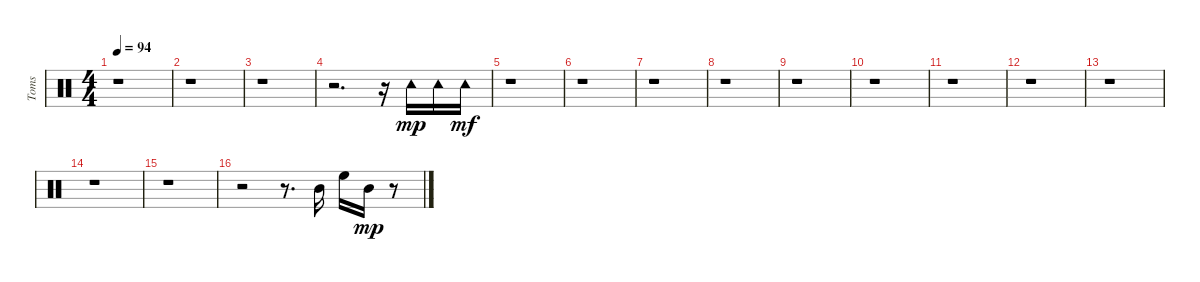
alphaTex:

\track ("Toms" "Toms") {instrument percussion}
\staff {score}
\articulation defaults
\ts (4 4)
\tempo 94
\clef neutral
\ks c
r.1{dy mp} |
r.1 |
r.1 |
r.2{d} r.16 "Tambourine (hit)".16 "Tambourine (hit)".16 "Tambourine (hit)".16{dy mf} |
r.1 |
r.1 |
r.1 |
r.1 |
r.1 |
r.1 |
r.1 |
r.1 |
r.1 |
r.1 |
r.1 |
r.2 r.8{d} "Mid Tom (hit)".16 "High Floor Tom (hit)".16 "Mid Tom (hit)".16{dy mp} r.8
